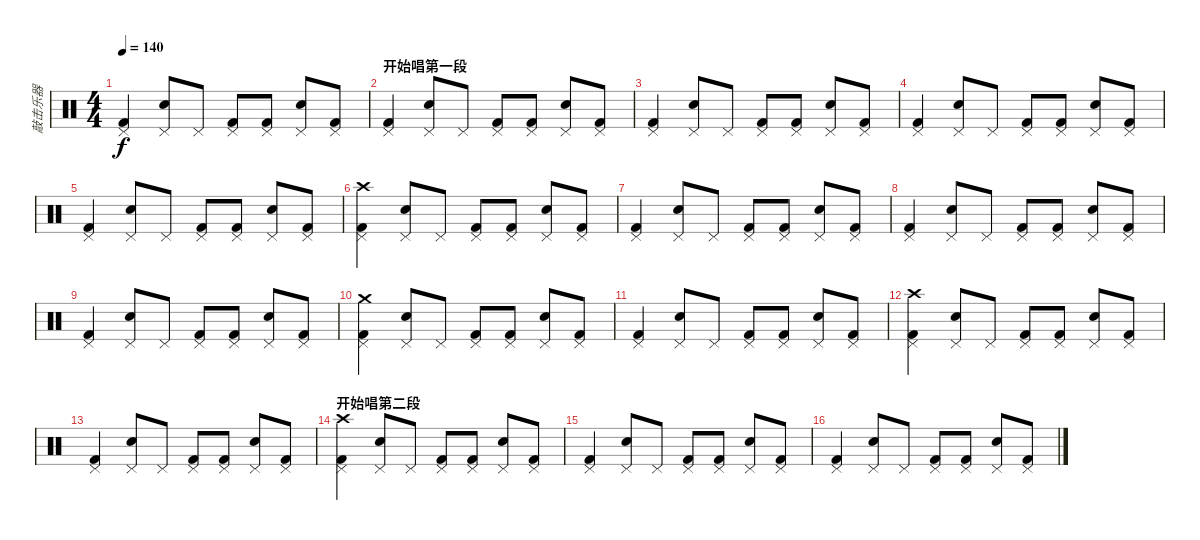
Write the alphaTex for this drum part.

\track ("敲击乐器" "敲击乐器") {instrument percussion}
\staff {score}
\articulation defaults
\ts (4 4)
\tempo 140
\clef neutral
\ks c
("Kick (hit) 2" "Pedal Hi-Hat (hit)").4{dy f} ("Snare (hit) 2" "Pedal Hi-Hat (hit)").8 "Pedal Hi-Hat (hit)".8 ("Kick (hit) 2" "Pedal Hi-Hat (hit)").8 ("Kick (hit) 2" "Pedal Hi-Hat (hit)").8 ("Snare (hit) 2" "Pedal Hi-Hat (hit)").8 ("Kick (hit) 2" "Pedal Hi-Hat (hit)").8 |
\section ("" "开始唱第一段")
("Kick (hit) 2" "Pedal Hi-Hat (hit)").4 ("Snare (hit) 2" "Pedal Hi-Hat (hit)").8 "Pedal Hi-Hat (hit)".8 ("Kick (hit) 2" "Pedal Hi-Hat (hit)").8 ("Kick (hit) 2" "Pedal Hi-Hat (hit)").8 ("Snare (hit) 2" "Pedal Hi-Hat (hit)").8 ("Kick (hit) 2" "Pedal Hi-Hat (hit)").8 |
("Kick (hit) 2" "Pedal Hi-Hat (hit)").4 ("Snare (hit) 2" "Pedal Hi-Hat (hit)").8 "Pedal Hi-Hat (hit)".8 ("Kick (hit) 2" "Pedal Hi-Hat (hit)").8 ("Kick (hit) 2" "Pedal Hi-Hat (hit)").8 ("Snare (hit) 2" "Pedal Hi-Hat (hit)").8 ("Kick (hit) 2" "Pedal Hi-Hat (hit)").8 |
("Kick (hit) 2" "Pedal Hi-Hat (hit)").4 ("Snare (hit) 2" "Pedal Hi-Hat (hit)").8 "Pedal Hi-Hat (hit)".8 ("Kick (hit) 2" "Pedal Hi-Hat (hit)").8 ("Kick (hit) 2" "Pedal Hi-Hat (hit)").8 ("Snare (hit) 2" "Pedal Hi-Hat (hit)").8 ("Kick (hit) 2" "Pedal Hi-Hat (hit)").8 |
("Kick (hit) 2" "Pedal Hi-Hat (hit)").4 ("Snare (hit) 2" "Pedal Hi-Hat (hit)").8 "Pedal Hi-Hat (hit)".8 ("Kick (hit) 2" "Pedal Hi-Hat (hit)").8 ("Kick (hit) 2" "Pedal Hi-Hat (hit)").8 ("Snare (hit) 2" "Pedal Hi-Hat (hit)").8 ("Kick (hit) 2" "Pedal Hi-Hat (hit)").8 |
("Kick (hit) 2" "Pedal Hi-Hat (hit)" "Crash high (hit)").4 ("Snare (hit) 2" "Pedal Hi-Hat (hit)").8 "Pedal Hi-Hat (hit)".8 ("Kick (hit) 2" "Pedal Hi-Hat (hit)").8 ("Kick (hit) 2" "Pedal Hi-Hat (hit)").8 ("Snare (hit) 2" "Pedal Hi-Hat (hit)").8 ("Kick (hit) 2" "Pedal Hi-Hat (hit)").8 |
("Kick (hit) 2" "Pedal Hi-Hat (hit)").4 ("Snare (hit) 2" "Pedal Hi-Hat (hit)").8 "Pedal Hi-Hat (hit)".8 ("Kick (hit) 2" "Pedal Hi-Hat (hit)").8 ("Kick (hit) 2" "Pedal Hi-Hat (hit)").8 ("Snare (hit) 2" "Pedal Hi-Hat (hit)").8 ("Kick (hit) 2" "Pedal Hi-Hat (hit)").8 |
("Kick (hit) 2" "Pedal Hi-Hat (hit)").4 ("Snare (hit) 2" "Pedal Hi-Hat (hit)").8 "Pedal Hi-Hat (hit)".8 ("Kick (hit) 2" "Pedal Hi-Hat (hit)").8 ("Kick (hit) 2" "Pedal Hi-Hat (hit)").8 ("Snare (hit) 2" "Pedal Hi-Hat (hit)").8 ("Kick (hit) 2" "Pedal Hi-Hat (hit)").8 |
("Kick (hit) 2" "Pedal Hi-Hat (hit)").4 ("Snare (hit) 2" "Pedal Hi-Hat (hit)").8 "Pedal Hi-Hat (hit)".8 ("Kick (hit) 2" "Pedal Hi-Hat (hit)").8 ("Kick (hit) 2" "Pedal Hi-Hat (hit)").8 ("Snare (hit) 2" "Pedal Hi-Hat (hit)").8 ("Kick (hit) 2" "Pedal Hi-Hat (hit)").8 |
("Kick (hit) 2" "Pedal Hi-Hat (hit)" "Crash medium (hit)").4 ("Snare (hit) 2" "Pedal Hi-Hat (hit)").8 "Pedal Hi-Hat (hit)".8 ("Kick (hit) 2" "Pedal Hi-Hat (hit)").8 ("Kick (hit) 2" "Pedal Hi-Hat (hit)").8 ("Snare (hit) 2" "Pedal Hi-Hat (hit)").8 ("Kick (hit) 2" "Pedal Hi-Hat (hit)").8 |
("Kick (hit) 2" "Pedal Hi-Hat (hit)").4 ("Snare (hit) 2" "Pedal Hi-Hat (hit)").8 "Pedal Hi-Hat (hit)".8 ("Kick (hit) 2" "Pedal Hi-Hat (hit)").8 ("Kick (hit) 2" "Pedal Hi-Hat (hit)").8 ("Snare (hit) 2" "Pedal Hi-Hat (hit)").8 ("Kick (hit) 2" "Pedal Hi-Hat (hit)").8 |
("Kick (hit) 2" "Pedal Hi-Hat (hit)" "Crash high (hit)").4 ("Snare (hit) 2" "Pedal Hi-Hat (hit)").8 "Pedal Hi-Hat (hit)".8 ("Kick (hit) 2" "Pedal Hi-Hat (hit)").8 ("Kick (hit) 2" "Pedal Hi-Hat (hit)").8 ("Snare (hit) 2" "Pedal Hi-Hat (hit)").8 ("Kick (hit) 2" "Pedal Hi-Hat (hit)").8 |
("Kick (hit) 2" "Pedal Hi-Hat (hit)").4 ("Snare (hit) 2" "Pedal Hi-Hat (hit)").8 "Pedal Hi-Hat (hit)".8 ("Kick (hit) 2" "Pedal Hi-Hat (hit)").8 ("Kick (hit) 2" "Pedal Hi-Hat (hit)").8 ("Snare (hit) 2" "Pedal Hi-Hat (hit)").8 ("Kick (hit) 2" "Pedal Hi-Hat (hit)").8 |
\section ("" "开始唱第二段")
("Kick (hit) 2" "Pedal Hi-Hat (hit)" "Crash high (hit)").4 ("Snare (hit) 2" "Pedal Hi-Hat (hit)").8 "Pedal Hi-Hat (hit)".8 ("Kick (hit) 2" "Pedal Hi-Hat (hit)").8 ("Kick (hit) 2" "Pedal Hi-Hat (hit)").8 ("Snare (hit) 2" "Pedal Hi-Hat (hit)").8 ("Kick (hit) 2" "Pedal Hi-Hat (hit)").8 |
("Kick (hit) 2" "Pedal Hi-Hat (hit)").4 ("Snare (hit) 2" "Pedal Hi-Hat (hit)").8 "Pedal Hi-Hat (hit)".8 ("Kick (hit) 2" "Pedal Hi-Hat (hit)").8 ("Kick (hit) 2" "Pedal Hi-Hat (hit)").8 ("Snare (hit) 2" "Pedal Hi-Hat (hit)").8 ("Kick (hit) 2" "Pedal Hi-Hat (hit)").8 |
("Kick (hit) 2" "Pedal Hi-Hat (hit)").4 ("Snare (hit) 2" "Pedal Hi-Hat (hit)").8 "Pedal Hi-Hat (hit)".8 ("Kick (hit) 2" "Pedal Hi-Hat (hit)").8 ("Kick (hit) 2" "Pedal Hi-Hat (hit)").8 ("Snare (hit) 2" "Pedal Hi-Hat (hit)").8 ("Kick (hit) 2" "Pedal Hi-Hat (hit)").8
